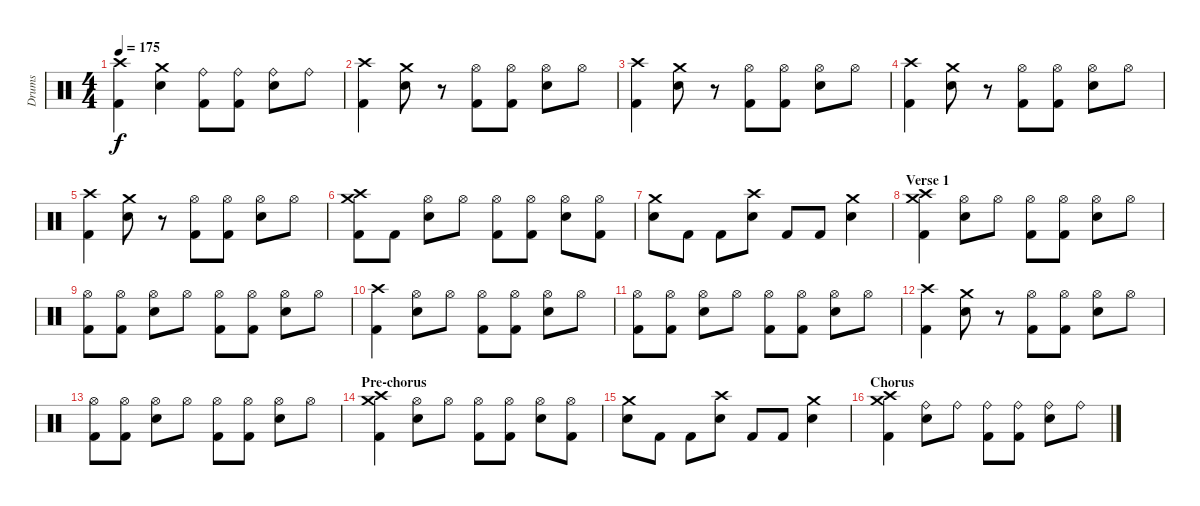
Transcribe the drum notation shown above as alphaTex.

\track ("Drums" "Drums") {instrument percussion}
\staff {score}
\articulation defaults
\ts (4 4)
\tempo 175
\clef neutral
\ks c
("Crash high (hit)" "Kick (hit) 2").4{dy f} ("Crash medium (hit)" "Electric Snare (hit)").4 ("Ride (bell)" "Kick (hit) 2").8 ("Ride (bell)" "Kick (hit) 2").8 ("Ride (bell)" "Electric Snare (hit)").8 "Ride (bell)".8 |
("Crash high (hit)" "Kick (hit) 2").4 ("Crash medium (hit)" "Electric Snare (hit)").8 r.8 ("Hi-Hat (open)" "Kick (hit) 2").8 ("Hi-Hat (open)" "Kick (hit) 2").8 ("Hi-Hat (open)" "Electric Snare (hit)").8 "Hi-Hat (open)".8 |
("Crash high (hit)" "Kick (hit) 2").4 ("Crash medium (hit)" "Electric Snare (hit)").8 r.8 ("Hi-Hat (open)" "Kick (hit) 2").8 ("Hi-Hat (open)" "Kick (hit) 2").8 ("Hi-Hat (open)" "Electric Snare (hit)").8 "Hi-Hat (open)".8 |
("Crash high (hit)" "Kick (hit) 2").4 ("Crash medium (hit)" "Electric Snare (hit)").8 r.8 ("Hi-Hat (open)" "Kick (hit) 2").8 ("Hi-Hat (open)" "Kick (hit) 2").8 ("Hi-Hat (open)" "Electric Snare (hit)").8 "Hi-Hat (open)".8 |
("Crash high (hit)" "Kick (hit) 2").4 ("Crash medium (hit)" "Electric Snare (hit)").8 r.8 ("Hi-Hat (open)" "Kick (hit) 2").8 ("Hi-Hat (open)" "Kick (hit) 2").8 ("Hi-Hat (open)" "Electric Snare (hit)").8 "Hi-Hat (open)".8 |
("Crash high (hit)" "Crash medium (hit)" "Kick (hit) 2").8 "Kick (hit) 2".8 ("Hi-Hat (open)" "Electric Snare (hit)").8 "Hi-Hat (open)".8 ("Hi-Hat (open)" "Kick (hit) 2").8 ("Hi-Hat (open)" "Kick (hit) 2").8 ("Hi-Hat (open)" "Electric Snare (hit)").8 ("Hi-Hat (open)" "Kick (hit) 2").8 |
("Crash medium (hit)" "Electric Snare (hit)").8 "Kick (hit) 2".8 "Kick (hit) 2".8 ("Crash high (hit)" "Electric Snare (hit)").8 "Kick (hit) 2".8 "Kick (hit) 2".8 ("Crash medium (hit)" "Electric Snare (hit)").4 |
\section ("" "Verse 1")
("Crash high (hit)" "Crash medium (hit)" "Kick (hit) 2").4 ("Hi-Hat (open)" "Electric Snare (hit)").8 "Hi-Hat (open)".8 ("Hi-Hat (open)" "Kick (hit) 2").8 ("Hi-Hat (open)" "Kick (hit) 2").8 ("Hi-Hat (open)" "Electric Snare (hit)").8 "Hi-Hat (open)".8 |
("Hi-Hat (open)" "Kick (hit) 2").8 ("Hi-Hat (open)" "Kick (hit) 2").8 ("Hi-Hat (open)" "Electric Snare (hit)").8 "Hi-Hat (open)".8 ("Hi-Hat (open)" "Kick (hit) 2").8 ("Hi-Hat (open)" "Kick (hit) 2").8 ("Hi-Hat (open)" "Electric Snare (hit)").8 "Hi-Hat (open)".8 |
("Crash high (hit)" "Kick (hit) 2").4 ("Hi-Hat (open)" "Electric Snare (hit)").8 "Hi-Hat (open)".8 ("Hi-Hat (open)" "Kick (hit) 2").8 ("Hi-Hat (open)" "Kick (hit) 2").8 ("Hi-Hat (open)" "Electric Snare (hit)").8 "Hi-Hat (open)".8 |
("Hi-Hat (open)" "Kick (hit) 2").8 ("Hi-Hat (open)" "Kick (hit) 2").8 ("Hi-Hat (open)" "Electric Snare (hit)").8 "Hi-Hat (open)".8 ("Hi-Hat (open)" "Kick (hit) 2").8 ("Hi-Hat (open)" "Kick (hit) 2").8 ("Hi-Hat (open)" "Electric Snare (hit)").8 "Hi-Hat (open)".8 |
("Crash high (hit)" "Kick (hit) 2").4 ("Crash medium (hit)" "Electric Snare (hit)").8 r.8 ("Hi-Hat (open)" "Kick (hit) 2").8 ("Hi-Hat (open)" "Kick (hit) 2").8 ("Hi-Hat (open)" "Electric Snare (hit)").8 "Hi-Hat (open)".8 |
("Hi-Hat (open)" "Kick (hit) 2").8 ("Hi-Hat (open)" "Kick (hit) 2").8 ("Hi-Hat (open)" "Electric Snare (hit)").8 "Hi-Hat (open)".8 ("Hi-Hat (open)" "Kick (hit) 2").8 ("Hi-Hat (open)" "Kick (hit) 2").8 ("Hi-Hat (open)" "Electric Snare (hit)").8 "Hi-Hat (open)".8 |
\section ("" "Pre-chorus")
("Crash high (hit)" "Crash medium (hit)" "Kick (hit) 2").4 ("Hi-Hat (open)" "Electric Snare (hit)").8 "Hi-Hat (open)".8 ("Hi-Hat (open)" "Kick (hit) 2").8 ("Hi-Hat (open)" "Kick (hit) 2").8 ("Hi-Hat (open)" "Electric Snare (hit)").8 ("Hi-Hat (open)" "Kick (hit) 2").8 |
("Crash medium (hit)" "Electric Snare (hit)").8 "Kick (hit) 2".8 "Kick (hit) 2".8 ("Crash high (hit)" "Electric Snare (hit)").8 "Kick (hit) 2".8 "Kick (hit) 2".8 ("Crash medium (hit)" "Electric Snare (hit)").4 |
\section ("" "Chorus")
("Crash high (hit)" "Crash medium (hit)" "Kick (hit) 2").4 ("Ride (bell)" "Electric Snare (hit)").8 "Ride (bell)".8 ("Ride (bell)" "Kick (hit) 2").8 ("Ride (bell)" "Kick (hit) 2").8 ("Ride (bell)" "Electric Snare (hit)").8 "Ride (bell)".8
